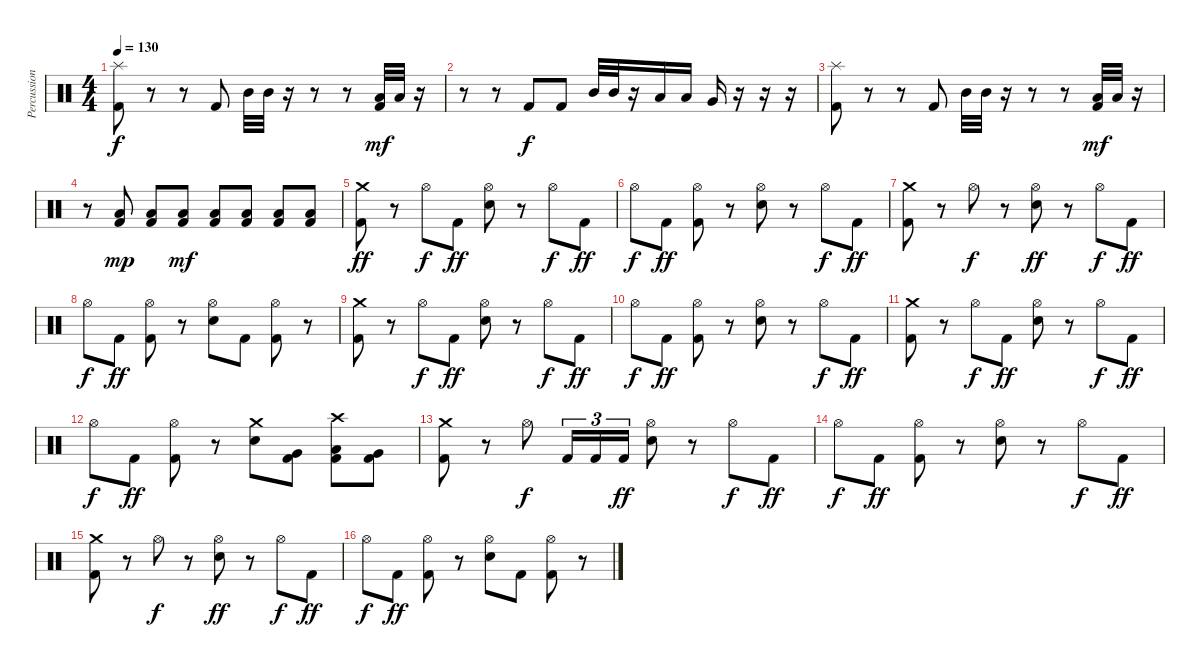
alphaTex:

\track ("Percussion" "Percussion") {instrument percussion}
\staff {score}
\articulation defaults
\ts (4 4)
\tempo 130
\clef neutral
\ks c
("Splash (hit)" "Kick (hit) 2").8{dy f} r.8 r.8 "Kick (hit) 2".8 "Mid Tom (hit)".32 "Mid Tom (hit)".32 r.16 r.8 r.8 ("Low Tom (hit)" "Kick (hit) 2").32{dy mf} "Low Tom (hit)".32 r.16 |
r.8 r.8 "Kick (hit) 2".8{dy f} "Kick (hit) 2".8 "Mid Tom (hit)".32 "Mid Tom (hit)".32 r.16 "Low Tom (hit)".16 "Low Tom (hit)".16 "Very Low Tom (hit)".16 r.16 r.16 r.16 |
("Splash (hit)" "Kick (hit) 2").8 r.8 r.8 "Kick (hit) 2".8 "Mid Tom (hit)".32 "Mid Tom (hit)".32 r.16 r.8 r.8 ("Low Tom (hit)" "Kick (hit) 2").32{dy mf} "Low Tom (hit)".32 r.16 |
r.8 ("Low Floor Tom (hit)" "Kick (hit) 2").8{dy mp} ("Low Floor Tom (hit)" "Kick (hit) 2").8 ("Low Floor Tom (hit)" "Kick (hit) 2").8{dy mf} ("Low Floor Tom (hit)" "Kick (hit) 2").8 ("Low Floor Tom (hit)" "Kick (hit) 2").8 ("Low Floor Tom (hit)" "Kick (hit) 2").8 ("Low Floor Tom (hit)" "Kick (hit) 2").8 |
("Crash medium (hit)" "Kick (hit) 2").8{dy ff} r.8 "Hi-Hat (open)".8{dy f} "Kick (hit) 2".8{dy ff} ("Hi-Hat (open)" "Electric Snare (hit)").8 r.8 "Hi-Hat (open)".8{dy f} "Kick (hit) 2".8{dy ff} |
"Hi-Hat (open)".8{dy f} "Kick (hit) 2".8{dy ff} ("Hi-Hat (open)" "Kick (hit) 2").8 r.8 ("Hi-Hat (open)" "Electric Snare (hit)").8 r.8 "Hi-Hat (open)".8{dy f} "Kick (hit) 2".8{dy ff} |
("Crash medium (hit)" "Kick (hit) 2").8 r.8 "Hi-Hat (open)".8{dy f} r.8 ("Hi-Hat (open)" "Electric Snare (hit)").8{dy ff} r.8 "Hi-Hat (open)".8{dy f} "Kick (hit) 2".8{dy ff} |
"Hi-Hat (open)".8{dy f} "Kick (hit) 2".8{dy ff} ("Hi-Hat (open)" "Kick (hit) 2").8 r.8 ("Hi-Hat (open)" "Electric Snare (hit)").8 "Kick (hit) 2".8 ("Hi-Hat (open)" "Kick (hit) 2").8 r.8 |
("Crash medium (hit)" "Kick (hit) 2").8 r.8 "Hi-Hat (open)".8{dy f} "Kick (hit) 2".8{dy ff} ("Hi-Hat (open)" "Electric Snare (hit)").8 r.8 "Hi-Hat (open)".8{dy f} "Kick (hit) 2".8{dy ff} |
"Hi-Hat (open)".8{dy f} "Kick (hit) 2".8{dy ff} ("Hi-Hat (open)" "Kick (hit) 2").8 r.8 ("Hi-Hat (open)" "Electric Snare (hit)").8 r.8 "Hi-Hat (open)".8{dy f} "Kick (hit) 2".8{dy ff} |
("Crash medium (hit)" "Kick (hit) 2").8 r.8 "Hi-Hat (open)".8{dy f} "Kick (hit) 2".8{dy ff} ("Hi-Hat (open)" "Electric Snare (hit)").8 r.8 "Hi-Hat (open)".8{dy f} "Kick (hit) 2".8{dy ff} |
"Hi-Hat (open)".8{dy f} "Kick (hit) 2".8{dy ff} ("Hi-Hat (open)" "Kick (hit) 2").8 r.8 ("Crash medium (hit)" "Electric Snare (hit)").8 ("Very Low Tom (hit)" "Kick (hit) 2").8 ("Crash high (hit)" "Low Tom (hit)" "Kick (hit) 2").8 ("Very Low Tom (hit)" "Kick (hit) 2").8 |
("Crash medium (hit)" "Kick (hit) 2").8 r.8 "Hi-Hat (open)".8{dy f} "Kick (hit) 2".16{tu (3 2)} "Kick (hit) 2".16{tu (3 2)} "Kick (hit) 2".16{tu (3 2) dy ff} ("Hi-Hat (open)" "Electric Snare (hit)").8 r.8 "Hi-Hat (open)".8{dy f} "Kick (hit) 2".8{dy ff} |
"Hi-Hat (open)".8{dy f} "Kick (hit) 2".8{dy ff} ("Hi-Hat (open)" "Kick (hit) 2").8 r.8 ("Hi-Hat (open)" "Electric Snare (hit)").8 r.8 "Hi-Hat (open)".8{dy f} "Kick (hit) 2".8{dy ff} |
("Crash medium (hit)" "Kick (hit) 2").8 r.8 "Hi-Hat (open)".8{dy f} r.8 ("Hi-Hat (open)" "Electric Snare (hit)").8{dy ff} r.8 "Hi-Hat (open)".8{dy f} "Kick (hit) 2".8{dy ff} |
"Hi-Hat (open)".8{dy f} "Kick (hit) 2".8{dy ff} ("Hi-Hat (open)" "Kick (hit) 2").8 r.8 ("Hi-Hat (open)" "Electric Snare (hit)").8 "Kick (hit) 2".8 ("Hi-Hat (open)" "Kick (hit) 2").8 r.8
